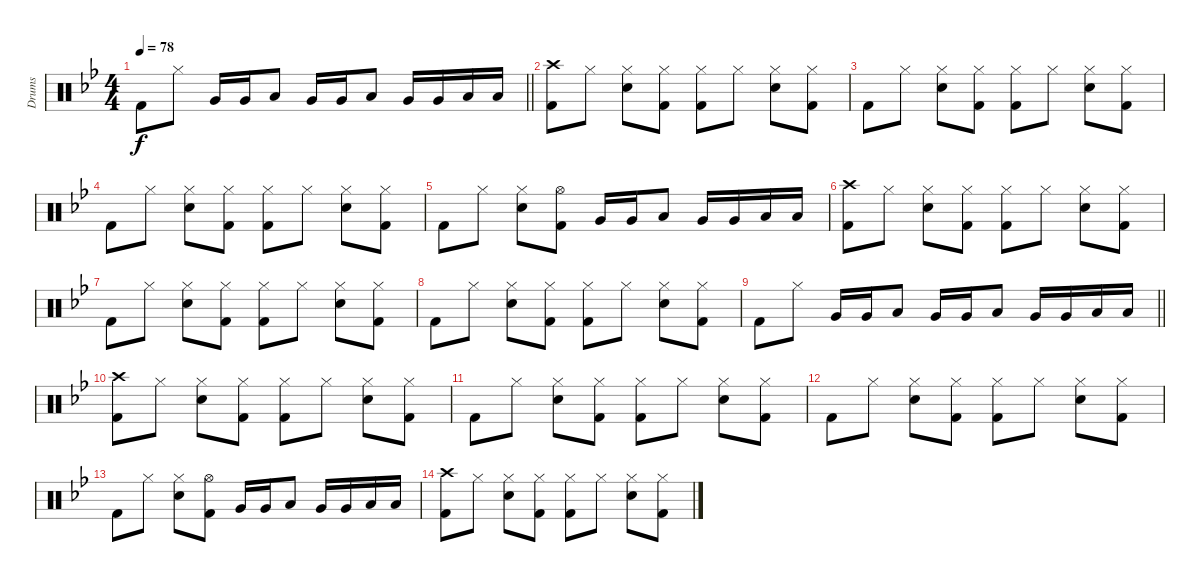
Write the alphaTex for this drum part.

\track ("Drums" "Drums") {instrument percussion}
\staff {score}
\articulation defaults
\ts (4 4)
\tempo 78
\clef neutral
\barLineRight lightlight
\ks bb "Kick (hit) 2".8{dy f} "Hi-Hat (closed)".8 "Very Low Tom (hit)".16 "Very Low Tom (hit)".16 "Low Floor Tom (hit)".8 "Very Low Tom (hit)".16 "Very Low Tom (hit)".16 "Low Floor Tom (hit)".8 "Very Low Tom (hit)".16 "Very Low Tom (hit)".16 "Low Floor Tom (hit)".16 "Low Floor Tom (hit)".16
|
("Crash high (hit)" "Kick (hit) 2").8 "Hi-Hat (closed)".8 ("Hi-Hat (closed)" "Snare (hit) 2").8 ("Hi-Hat (closed)" "Kick (hit) 2").8 ("Hi-Hat (closed)" "Kick (hit) 2").8 "Hi-Hat (closed)".8 ("Hi-Hat (closed)" "Snare (hit) 2").8 ("Hi-Hat (closed)" "Kick (hit) 2").8 |
"Kick (hit) 2".8 "Hi-Hat (closed)".8 ("Hi-Hat (closed)" "Snare (hit) 2").8 ("Hi-Hat (closed)" "Kick (hit) 2").8 ("Hi-Hat (closed)" "Kick (hit) 2").8 "Hi-Hat (closed)".8 ("Hi-Hat (closed)" "Snare (hit) 2").8 ("Hi-Hat (closed)" "Kick (hit) 2").8 |
"Kick (hit) 2".8 "Hi-Hat (closed)".8 ("Hi-Hat (closed)" "Snare (hit) 2").8 ("Hi-Hat (closed)" "Kick (hit) 2").8 ("Hi-Hat (closed)" "Kick (hit) 2").8 "Hi-Hat (closed)".8 ("Hi-Hat (closed)" "Snare (hit) 2").8 ("Hi-Hat (closed)" "Kick (hit) 2").8 |
"Kick (hit) 2".8 "Hi-Hat (closed)".8 ("Hi-Hat (closed)" "Snare (hit) 2").8 ("Hi-Hat (open)" "Kick (hit) 2").8 "Very Low Tom (hit)".16 "Very Low Tom (hit)".16 "Low Floor Tom (hit)".8 "Very Low Tom (hit)".16 "Very Low Tom (hit)".16 "Low Floor Tom (hit)".16 "Low Floor Tom (hit)".16 |
("Crash high (hit)" "Kick (hit) 2").8 "Hi-Hat (closed)".8 ("Hi-Hat (closed)" "Snare (hit) 2").8 ("Hi-Hat (closed)" "Kick (hit) 2").8 ("Hi-Hat (closed)" "Kick (hit) 2").8 "Hi-Hat (closed)".8 ("Hi-Hat (closed)" "Snare (hit) 2").8 ("Hi-Hat (closed)" "Kick (hit) 2").8 |
"Kick (hit) 2".8 "Hi-Hat (closed)".8 ("Hi-Hat (closed)" "Snare (hit) 2").8 ("Hi-Hat (closed)" "Kick (hit) 2").8 ("Hi-Hat (closed)" "Kick (hit) 2").8 "Hi-Hat (closed)".8 ("Hi-Hat (closed)" "Snare (hit) 2").8 ("Hi-Hat (closed)" "Kick (hit) 2").8 |
"Kick (hit) 2".8 "Hi-Hat (closed)".8 ("Hi-Hat (closed)" "Snare (hit) 2").8 ("Hi-Hat (closed)" "Kick (hit) 2").8 ("Hi-Hat (closed)" "Kick (hit) 2").8 "Hi-Hat (closed)".8 ("Hi-Hat (closed)" "Snare (hit) 2").8 ("Hi-Hat (closed)" "Kick (hit) 2").8 |
\barLineRight lightlight "Kick (hit) 2".8 "Hi-Hat (closed)".8 "Very Low Tom (hit)".16 "Very Low Tom (hit)".16 "Low Floor Tom (hit)".8 "Very Low Tom (hit)".16 "Very Low Tom (hit)".16 "Low Floor Tom (hit)".8 "Very Low Tom (hit)".16 "Very Low Tom (hit)".16 "Low Floor Tom (hit)".16 "Low Floor Tom (hit)".16
|
("Crash high (hit)" "Kick (hit) 2").8 "Hi-Hat (closed)".8 ("Hi-Hat (closed)" "Snare (hit) 2").8 ("Hi-Hat (closed)" "Kick (hit) 2").8 ("Hi-Hat (closed)" "Kick (hit) 2").8 "Hi-Hat (closed)".8 ("Hi-Hat (closed)" "Snare (hit) 2").8 ("Hi-Hat (closed)" "Kick (hit) 2").8 |
"Kick (hit) 2".8 "Hi-Hat (closed)".8 ("Hi-Hat (closed)" "Snare (hit) 2").8 ("Hi-Hat (closed)" "Kick (hit) 2").8 ("Hi-Hat (closed)" "Kick (hit) 2").8 "Hi-Hat (closed)".8 ("Hi-Hat (closed)" "Snare (hit) 2").8 ("Hi-Hat (closed)" "Kick (hit) 2").8 |
"Kick (hit) 2".8 "Hi-Hat (closed)".8 ("Hi-Hat (closed)" "Snare (hit) 2").8 ("Hi-Hat (closed)" "Kick (hit) 2").8 ("Hi-Hat (closed)" "Kick (hit) 2").8 "Hi-Hat (closed)".8 ("Hi-Hat (closed)" "Snare (hit) 2").8 ("Hi-Hat (closed)" "Kick (hit) 2").8 |
"Kick (hit) 2".8{volume 0} "Hi-Hat (closed)".8 ("Hi-Hat (closed)" "Snare (hit) 2").8 ("Hi-Hat (open)" "Kick (hit) 2").8 "Very Low Tom (hit)".16 "Very Low Tom (hit)".16 "Low Floor Tom (hit)".8 "Very Low Tom (hit)".16 "Very Low Tom (hit)".16 "Low Floor Tom (hit)".16 "Low Floor Tom (hit)".16 |
("Crash high (hit)" "Kick (hit) 2").8 "Hi-Hat (closed)".8 ("Hi-Hat (closed)" "Snare (hit) 2").8 ("Hi-Hat (closed)" "Kick (hit) 2").8 ("Hi-Hat (closed)" "Kick (hit) 2").8 "Hi-Hat (closed)".8 ("Hi-Hat (closed)" "Snare (hit) 2").8 ("Hi-Hat (closed)" "Kick (hit) 2").8
